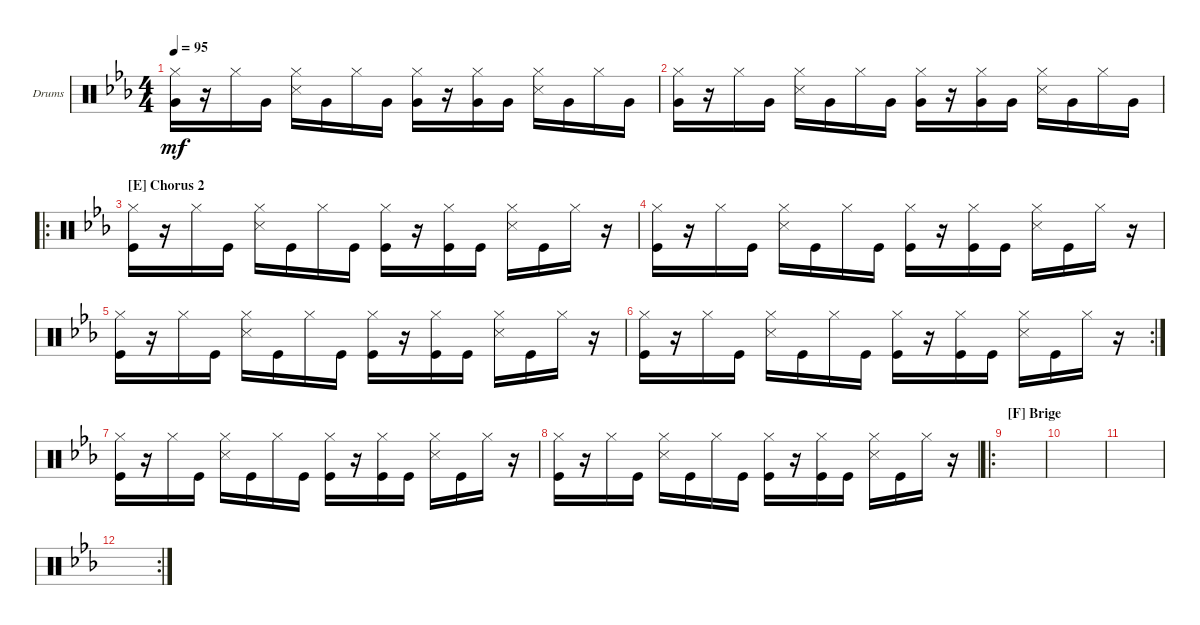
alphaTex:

\bracketExtendMode groupsimilarinstruments
\firstSystemTrackNameOrientation horizontal
\otherSystemsTrackNameOrientation horizontal
\track ("Drums" "Drums") {instrument percussion}
\staff {score}
\articulation defaults
\ts (4 4)
\tempo 95
\clef neutral
\scale
0.333333
\ks eb
("Hi-Hat (closed)" "Very Low Tom (hit)").16{dy mf} r.16 "Hi-Hat (closed)".16 "Very Low Tom (hit)".16 ("Hi-Hat (closed)" "Snare (side stick) 3").16 "Very Low Tom (hit)".16 "Hi-Hat (closed)".16 "Very Low Tom (hit)".16 ("Hi-Hat (closed)" "Very Low Tom (hit)").16 r.16 ("Hi-Hat (closed)" "Very Low Tom (hit)").16 "Very Low Tom (hit)".16 ("Hi-Hat (closed)" "Snare (side stick) 3").16 "Very Low Tom (hit)".16 "Hi-Hat (closed)".16 "Very Low Tom (hit)".16 |
\section ("" "")
\scale
0.377049 ("Hi-Hat (closed)" "Very Low Tom (hit)").16 r.16 "Hi-Hat (closed)".16 "Very Low Tom (hit)".16 ("Hi-Hat (closed)" "Snare (side stick) 3").16 "Very Low Tom (hit)".16 "Hi-Hat (closed)".16 "Very Low Tom (hit)".16 ("Hi-Hat (closed)" "Very Low Tom (hit)").16 r.16 ("Hi-Hat (closed)" "Very Low Tom (hit)").16 "Very Low Tom (hit)".16 ("Hi-Hat (closed)" "Snare (side stick) 3").16 "Very Low Tom (hit)".16 "Hi-Hat (closed)".16 "Very Low Tom (hit)".16 |
\ro
\section ("E" "Chorus 2")
\scale
0.311475 ("Hi-Hat (closed)" "Kick (hit)").16 r.16 "Hi-Hat (closed)".16 "Kick (hit)".16 ("Hi-Hat (closed)" "Snare (side stick) 3").16 "Kick (hit)".16 "Hi-Hat (closed)".16 "Kick (hit)".16 ("Hi-Hat (closed)" "Kick (hit)").16 r.16 ("Hi-Hat (closed)" "Kick (hit)").16 "Kick (hit)".16 ("Hi-Hat (closed)" "Snare (side stick) 3").16 "Kick (hit)".16 "Hi-Hat (closed)".16 r.16 |
\scale
0.311475 ("Hi-Hat (closed)" "Kick (hit)").16 r.16 "Hi-Hat (closed)".16 "Kick (hit)".16 ("Hi-Hat (closed)" "Snare (side stick) 3").16 "Kick (hit)".16 "Hi-Hat (closed)".16 "Kick (hit)".16 ("Hi-Hat (closed)" "Kick (hit)").16 r.16 ("Hi-Hat (closed)" "Kick (hit)").16 "Kick (hit)".16 ("Hi-Hat (closed)" "Snare (side stick) 3").16 "Kick (hit)".16 "Hi-Hat (closed)".16 r.16 |
\scale
0.355932 ("Hi-Hat (closed)" "Kick (hit)").16 r.16 "Hi-Hat (closed)".16 "Kick (hit)".16 ("Hi-Hat (closed)" "Snare (side stick) 3").16 "Kick (hit)".16 "Hi-Hat (closed)".16 "Kick (hit)".16 ("Hi-Hat (closed)" "Kick (hit)").16 r.16 ("Hi-Hat (closed)" "Kick (hit)").16 "Kick (hit)".16 ("Hi-Hat (closed)" "Snare (side stick) 3").16 "Kick (hit)".16 "Hi-Hat (closed)".16 r.16 |
\rc 2
\scale
0.322034 ("Hi-Hat (closed)" "Kick (hit)").16 r.16 "Hi-Hat (closed)".16 "Kick (hit)".16 ("Hi-Hat (closed)" "Snare (side stick) 3").16 "Kick (hit)".16 "Hi-Hat (closed)".16 "Kick (hit)".16 ("Hi-Hat (closed)" "Kick (hit)").16 r.16 ("Hi-Hat (closed)" "Kick (hit)").16 "Kick (hit)".16 ("Hi-Hat (closed)" "Snare (side stick) 3").16 "Kick (hit)".16 "Hi-Hat (closed)".16 r.16 |
\scale
0.322034 ("Hi-Hat (closed)" "Kick (hit)").16 r.16 "Hi-Hat (closed)".16 "Kick (hit)".16 ("Hi-Hat (closed)" "Snare (side stick) 3").16 "Kick (hit)".16 "Hi-Hat (closed)".16 "Kick (hit)".16 ("Hi-Hat (closed)" "Kick (hit)").16 r.16 ("Hi-Hat (closed)" "Kick (hit)").16 "Kick (hit)".16 ("Hi-Hat (closed)" "Snare (side stick) 3").16 "Kick (hit)".16 "Hi-Hat (closed)".16 r.16 |
\section ("" "")
\scale
0.377049 ("Hi-Hat (closed)" "Kick (hit)").16 r.16 "Hi-Hat (closed)".16 "Kick (hit)".16 ("Hi-Hat (closed)" "Snare (side stick) 3").16 "Kick (hit)".16 "Hi-Hat (closed)".16 "Kick (hit)".16 ("Hi-Hat (closed)" "Kick (hit)").16 r.16 ("Hi-Hat (closed)" "Kick (hit)").16 "Kick (hit)".16 ("Hi-Hat (closed)" "Snare (side stick) 3").16 "Kick (hit)".16 "Hi-Hat (closed)".16 r.16 |
\ro
\section ("F" "Brige")
\scale
0.311475 |
\scale
0.311475 |
\scale
0.355932 |
\rc 2
\scale
0.322034 |
\scale
0.322034 |
\scale
0.333333 |
\scale
0.333333 |
\scale
0.333333
